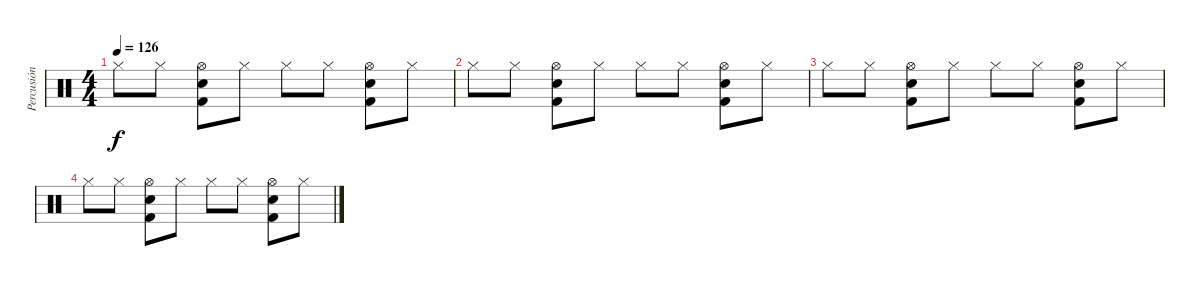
\track ("Percusión" "Percusión") {instrument percussion}
\staff {score}
\articulation defaults
\ts (4 4)
\tempo 126
\clef neutral
\ks c "Hi-Hat (closed)".8{dy f} "Hi-Hat (closed)".8
("Snare (hit) 2" "Hi-Hat (open)" "Kick (hit) 2").8 "Hi-Hat (closed)".8 "Hi-Hat (closed)".8 "Hi-Hat (closed)".8 ("Snare (hit) 2" "Hi-Hat (open)" "Kick (hit) 2").8 "Hi-Hat (closed)".8 |
"Hi-Hat (closed)".8 "Hi-Hat (closed)".8 ("Snare (hit) 2" "Hi-Hat (open)" "Kick (hit) 2").8 "Hi-Hat (closed)".8 "Hi-Hat (closed)".8 "Hi-Hat (closed)".8 ("Snare (hit) 2" "Hi-Hat (open)" "Kick (hit) 2").8 "Hi-Hat (closed)".8 |
"Hi-Hat (closed)".8 "Hi-Hat (closed)".8 ("Snare (hit) 2" "Hi-Hat (open)" "Kick (hit) 2").8 "Hi-Hat (closed)".8 "Hi-Hat (closed)".8 "Hi-Hat (closed)".8 ("Snare (hit) 2" "Hi-Hat (open)" "Kick (hit) 2").8 "Hi-Hat (closed)".8 |
"Hi-Hat (closed)".8 "Hi-Hat (closed)".8 ("Snare (hit) 2" "Hi-Hat (open)" "Kick (hit) 2").8 "Hi-Hat (closed)".8 "Hi-Hat (closed)".8 "Hi-Hat (closed)".8 ("Snare (hit) 2" "Hi-Hat (open)" "Kick (hit) 2").8 "Hi-Hat (closed)".8
